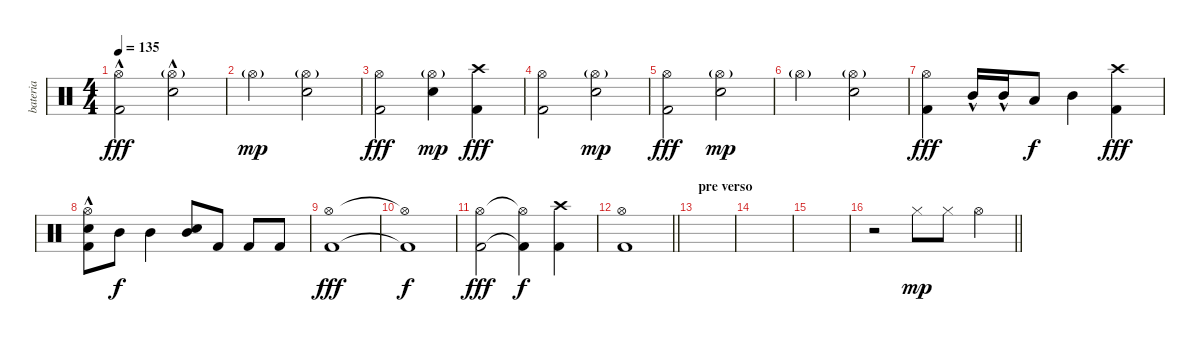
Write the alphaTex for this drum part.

\track ("bateria" "bateria") {instrument percussion}
\staff {score}
\articulation defaults
\ts (4 4)
\tempo 135
\clef neutral
\ks c
("Hi-Hat (open)" "Kick (hit) 2"{hac}).2{dy fff} ("Hi-Hat (open)"{g} "Snare (hit) 2"{hac}).2 |
"Hi-Hat (open)"{g}.2{dy mp} ("Hi-Hat (open)"{g} "Snare (hit) 2").2 |
("Hi-Hat (open)" "Kick (hit) 2").2{dy fff} ("Hi-Hat (open)"{g} "Snare (hit) 2").4{dy mp} ("Crash high (hit)" "Kick (hit) 2").4{dy fff} |
("Hi-Hat (open)" "Kick (hit) 2").2 ("Hi-Hat (open)"{g} "Snare (hit) 2").2{dy mp} |
("Hi-Hat (open)" "Kick (hit) 2").2{dy fff} ("Hi-Hat (open)"{g} "Snare (hit) 2").2{dy mp} |
"Hi-Hat (open)"{g}.2 ("Hi-Hat (open)"{g} "Snare (hit) 2").2 |
("Hi-Hat (open)" "Kick (hit) 2").4{dy fff} "Mid Tom (hit)"{hac}.16 "Mid Tom (hit)"{hac}.16 "Low Tom (hit)".8{dy f} "Mid Tom (hit)".4 ("Crash high (hit)" "Kick (hit) 2").4{dy fff} |
("Hi-Hat (open)" "Snare (hit) 2"{hac} "Kick (hit) 2").8 "Mid Tom (hit)".8{dy f} "Mid Tom (hit)".4 ("Snare (hit) 2" "Mid Tom (hit)").8 "Kick (hit) 2".8 "Kick (hit) 2".8 "Kick (hit) 2".8 |
("Hi-Hat (open)" "Kick (hit) 2").1{dy fff} |
("Hi-Hat (open)"{t} "Kick (hit) 2"{t}).1{dy f} |
("Hi-Hat (open)" "Kick (hit) 2").2{dy fff} ("Hi-Hat (open)"{t} "Kick (hit) 2"{t}).4{dy f} ("Crash high (hit)" "Kick (hit) 2").4 |
\barLineRight lightlight
("Hi-Hat (open)" "Kick (hit) 2").1 |
\section ("" "pre verso")
|
|
|
\barLineRight lightlight
r.2 "Hi-Hat (closed)".8{dy mp} "Hi-Hat (closed)".8 "Hi-Hat (open)".4
